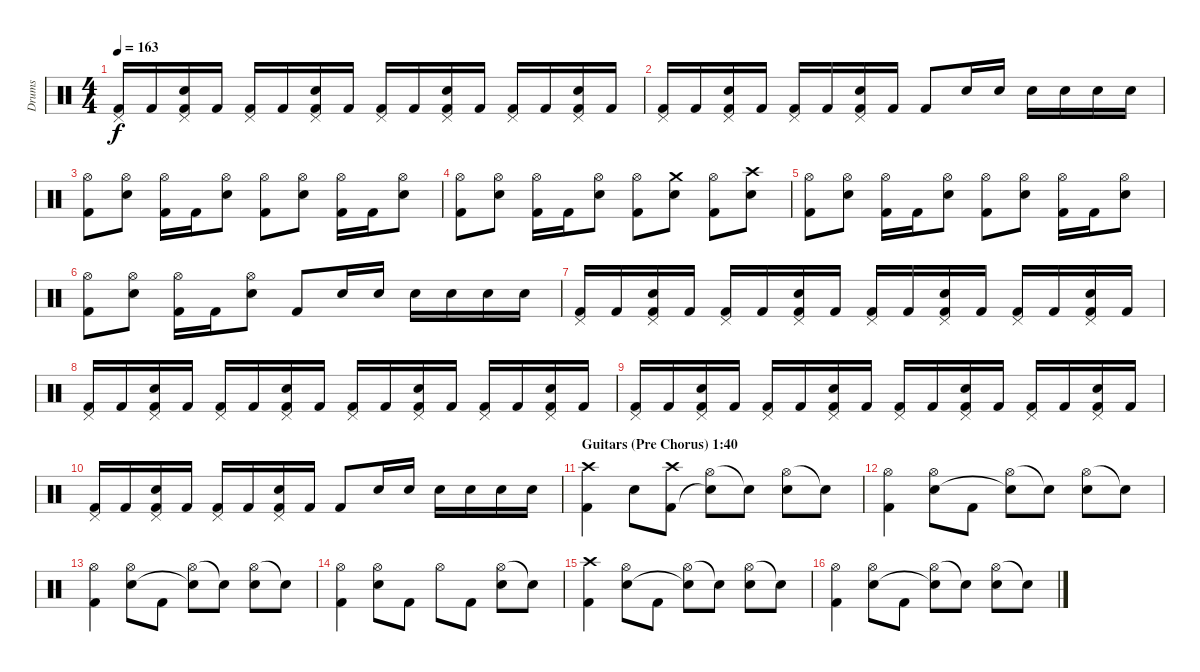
\track ("Drums" "Drums") {instrument percussion}
\staff {score}
\articulation defaults
\ts (4 4)
\tempo 163
\clef neutral
\ks c
("Pedal Hi-Hat (hit)" "Kick (hit) 2").16{dy f} "Kick (hit) 2".16 ("Pedal Hi-Hat (hit)" "Kick (hit) 2" "Snare (hit) 2").16 "Kick (hit) 2".16 ("Pedal Hi-Hat (hit)" "Kick (hit) 2").16 "Kick (hit) 2".16 ("Pedal Hi-Hat (hit)" "Kick (hit) 2" "Snare (hit) 2").16 "Kick (hit) 2".16 ("Pedal Hi-Hat (hit)" "Kick (hit) 2").16 "Kick (hit) 2".16 ("Pedal Hi-Hat (hit)" "Kick (hit) 2" "Snare (hit) 2").16 "Kick (hit) 2".16 ("Pedal Hi-Hat (hit)" "Kick (hit) 2").16 "Kick (hit) 2".16 ("Pedal Hi-Hat (hit)" "Kick (hit) 2" "Snare (hit) 2").16 "Kick (hit) 2".16 |
("Pedal Hi-Hat (hit)" "Kick (hit) 2").16 "Kick (hit) 2".16 ("Pedal Hi-Hat (hit)" "Kick (hit) 2" "Snare (hit) 2").16 "Kick (hit) 2".16 ("Pedal Hi-Hat (hit)" "Kick (hit) 2").16 "Kick (hit) 2".16 ("Pedal Hi-Hat (hit)" "Kick (hit) 2" "Snare (hit) 2").16 "Kick (hit) 2".16 "Kick (hit) 2".8 "Snare (hit) 2".16 "Snare (hit) 2".16 "Snare (hit) 2".16 "Snare (hit) 2".16 "Snare (hit) 2".16 "Snare (hit) 2".16 |
("Hi-Hat (open)" "Kick (hit) 2").8 ("Hi-Hat (open)" "Snare (hit) 2").8 ("Hi-Hat (open)" "Kick (hit) 2").16 "Kick (hit) 2".16 ("Hi-Hat (open)" "Snare (hit) 2").8 ("Hi-Hat (open)" "Kick (hit) 2").8 ("Hi-Hat (open)" "Snare (hit) 2").8 ("Hi-Hat (open)" "Kick (hit) 2").16 "Kick (hit) 2".16 ("Hi-Hat (open)" "Snare (hit) 2").8 |
("Hi-Hat (open)" "Kick (hit) 2").8 ("Hi-Hat (open)" "Snare (hit) 2").8 ("Hi-Hat (open)" "Kick (hit) 2").16 "Kick (hit) 2".16 ("Hi-Hat (open)" "Snare (hit) 2").8 ("Hi-Hat (open)" "Kick (hit) 2").8 ("Crash medium (hit)" "Snare (hit) 2").8 ("Hi-Hat (open)" "Kick (hit) 2").8 ("Crash high (hit)" "Snare (hit) 2").8 |
("Hi-Hat (open)" "Kick (hit) 2").8 ("Hi-Hat (open)" "Snare (hit) 2").8 ("Hi-Hat (open)" "Kick (hit) 2").16 "Kick (hit) 2".16 ("Hi-Hat (open)" "Snare (hit) 2").8 ("Hi-Hat (open)" "Kick (hit) 2").8 ("Hi-Hat (open)" "Snare (hit) 2").8 ("Hi-Hat (open)" "Kick (hit) 2").16 "Kick (hit) 2".16 ("Hi-Hat (open)" "Snare (hit) 2").8 |
("Hi-Hat (open)" "Kick (hit) 2").8 ("Hi-Hat (open)" "Snare (hit) 2").8 ("Hi-Hat (open)" "Kick (hit) 2").16 "Kick (hit) 2".16 ("Hi-Hat (open)" "Snare (hit) 2").8 "Kick (hit) 2".8 "Snare (hit) 2".16 "Snare (hit) 2".16 "Snare (hit) 2".16 "Snare (hit) 2".16 "Snare (hit) 2".16 "Snare (hit) 2".16 |
("Pedal Hi-Hat (hit)" "Kick (hit) 2").16 "Kick (hit) 2".16 ("Pedal Hi-Hat (hit)" "Kick (hit) 2" "Snare (hit) 2").16 "Kick (hit) 2".16 ("Pedal Hi-Hat (hit)" "Kick (hit) 2").16 "Kick (hit) 2".16 ("Pedal Hi-Hat (hit)" "Kick (hit) 2" "Snare (hit) 2").16 "Kick (hit) 2".16 ("Pedal Hi-Hat (hit)" "Kick (hit) 2").16 "Kick (hit) 2".16 ("Pedal Hi-Hat (hit)" "Kick (hit) 2" "Snare (hit) 2").16 "Kick (hit) 2".16 ("Pedal Hi-Hat (hit)" "Kick (hit) 2").16 "Kick (hit) 2".16 ("Pedal Hi-Hat (hit)" "Kick (hit) 2" "Snare (hit) 2").16 "Kick (hit) 2".16 |
("Pedal Hi-Hat (hit)" "Kick (hit) 2").16 "Kick (hit) 2".16 ("Pedal Hi-Hat (hit)" "Kick (hit) 2" "Snare (hit) 2").16 "Kick (hit) 2".16 ("Pedal Hi-Hat (hit)" "Kick (hit) 2").16 "Kick (hit) 2".16 ("Pedal Hi-Hat (hit)" "Kick (hit) 2" "Snare (hit) 2").16 "Kick (hit) 2".16 ("Pedal Hi-Hat (hit)" "Kick (hit) 2").16 "Kick (hit) 2".16 ("Pedal Hi-Hat (hit)" "Kick (hit) 2" "Snare (hit) 2").16 "Kick (hit) 2".16 ("Pedal Hi-Hat (hit)" "Kick (hit) 2").16 "Kick (hit) 2".16 ("Pedal Hi-Hat (hit)" "Kick (hit) 2" "Snare (hit) 2").16 "Kick (hit) 2".16 |
("Pedal Hi-Hat (hit)" "Kick (hit) 2").16 "Kick (hit) 2".16 ("Pedal Hi-Hat (hit)" "Kick (hit) 2" "Snare (hit) 2").16 "Kick (hit) 2".16 ("Pedal Hi-Hat (hit)" "Kick (hit) 2").16 "Kick (hit) 2".16 ("Pedal Hi-Hat (hit)" "Kick (hit) 2" "Snare (hit) 2").16 "Kick (hit) 2".16 ("Pedal Hi-Hat (hit)" "Kick (hit) 2").16 "Kick (hit) 2".16 ("Pedal Hi-Hat (hit)" "Kick (hit) 2" "Snare (hit) 2").16 "Kick (hit) 2".16 ("Pedal Hi-Hat (hit)" "Kick (hit) 2").16 "Kick (hit) 2".16 ("Pedal Hi-Hat (hit)" "Kick (hit) 2" "Snare (hit) 2").16 "Kick (hit) 2".16 |
("Pedal Hi-Hat (hit)" "Kick (hit) 2").16 "Kick (hit) 2".16 ("Pedal Hi-Hat (hit)" "Kick (hit) 2" "Snare (hit) 2").16 "Kick (hit) 2".16 ("Pedal Hi-Hat (hit)" "Kick (hit) 2").16 "Kick (hit) 2".16 ("Pedal Hi-Hat (hit)" "Kick (hit) 2" "Snare (hit) 2").16 "Kick (hit) 2".16 "Kick (hit) 2".8 "Snare (hit) 2".16 "Snare (hit) 2".16 "Snare (hit) 2".16 "Snare (hit) 2".16 "Snare (hit) 2".16 "Snare (hit) 2".16 |
\section ("" "Guitars (Pre Chorus) 1:40")
("Crash high (hit)" "Kick (hit) 2").4 "Snare (hit) 2".8 ("Crash high (hit)" "Kick (hit) 2").8 ("Hi-Hat (open)" "Snare (hit)"{t}).8 "Snare (hit)"{t}.8 ("Hi-Hat (open)" "Snare (hit) 2").8 "Snare (hit)"{t}.8 |
("Hi-Hat (open)" "Kick (hit) 2").4 ("Hi-Hat (open)" "Snare (hit) 2").8 "Kick (hit) 2".8 ("Hi-Hat (open)" "Snare (hit)"{t}).8 "Snare (hit)"{t}.8 ("Hi-Hat (open)" "Snare (hit) 2").8 "Snare (hit)"{t}.8 |
("Hi-Hat (open)" "Kick (hit) 2").4 ("Hi-Hat (open)" "Snare (hit) 2").8 "Kick (hit) 2".8 ("Hi-Hat (open)" "Snare (hit)"{t}).8 "Snare (hit)"{t}.8 ("Hi-Hat (open)" "Snare (hit) 2").8 "Snare (hit)"{t}.8 |
("Hi-Hat (open)" "Kick (hit) 2").4 ("Hi-Hat (open)" "Snare (hit) 2").8 "Kick (hit) 2".8 "Hi-Hat (open)".8 "Kick (hit) 2".8 ("Hi-Hat (open)" "Snare (hit) 2").8 "Snare (hit)"{t}.8 |
("Crash high (hit)" "Kick (hit) 2").4 ("Hi-Hat (open)" "Snare (hit) 2").8 "Kick (hit) 2".8 ("Hi-Hat (open)" "Snare (hit)"{t}).8 "Snare (hit)"{t}.8 ("Hi-Hat (open)" "Snare (hit) 2").8 "Snare (hit)"{t}.8 |
("Hi-Hat (open)" "Kick (hit) 2").4 ("Hi-Hat (open)" "Snare (hit) 2").8 "Kick (hit) 2".8 ("Hi-Hat (open)" "Snare (hit)"{t}).8 "Snare (hit)"{t}.8 ("Hi-Hat (open)" "Snare (hit) 2").8 "Snare (hit)"{t}.8
